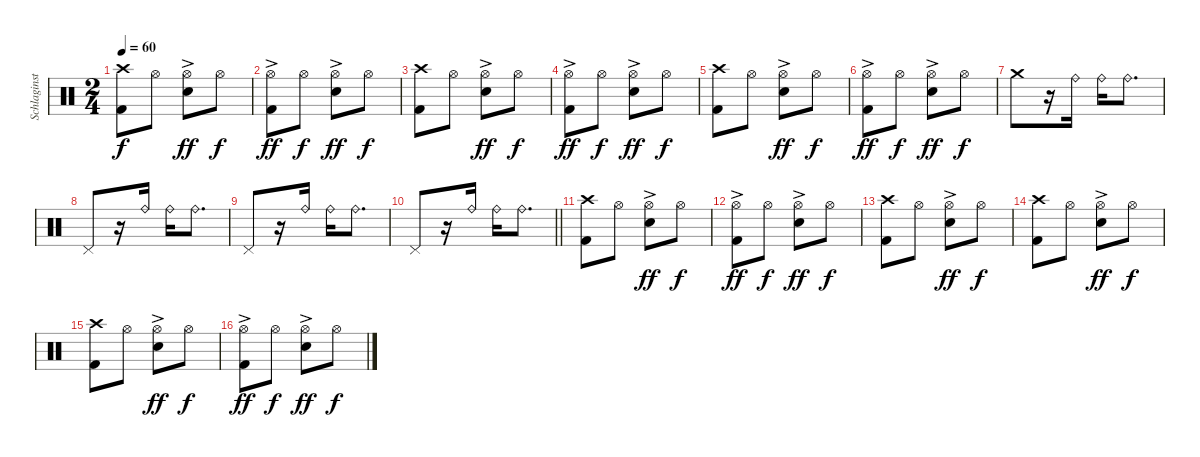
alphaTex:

\track ("Schlaginstrumente - Auswahl" "Schlaginst") {instrument percussion}
\staff {score}
\articulation defaults
\ts (2 4)
\tempo 60
\clef neutral
\ks c
("Crash high (hit)" "Kick (hit) 2").8{dy f} "Hi-Hat (open)".8 ("Hi-Hat (open)"{ac} "Snare (hit) 2").8{dy ff} "Hi-Hat (open)".8{dy f} |
("Hi-Hat (open)"{ac} "Kick (hit) 2").8{dy ff} "Hi-Hat (open)".8{dy f} ("Hi-Hat (open)"{ac} "Snare (hit) 2").8{dy ff} "Hi-Hat (open)".8{dy f} |
("Crash high (hit)" "Kick (hit) 2").8 "Hi-Hat (open)".8 ("Hi-Hat (open)"{ac} "Snare (hit) 2").8{dy ff} "Hi-Hat (open)".8{dy f} |
("Hi-Hat (open)"{ac} "Kick (hit) 2").8{dy ff} "Hi-Hat (open)".8{dy f} ("Hi-Hat (open)"{ac} "Snare (hit) 2").8{dy ff} "Hi-Hat (open)".8{dy f} |
("Crash high (hit)" "Kick (hit) 2").8 "Hi-Hat (open)".8 ("Hi-Hat (open)"{ac} "Snare (hit) 2").8{dy ff} "Hi-Hat (open)".8{dy f} |
("Hi-Hat (open)"{ac} "Kick (hit) 2").8{dy ff} "Hi-Hat (open)".8{dy f} ("Hi-Hat (open)"{ac} "Snare (hit) 2").8{dy ff} "Hi-Hat (open)".8{dy f} |
"Crash medium (hit)".8 r.16 "Ride (bell)".16 "Ride (bell)".16 "Ride (bell)".8{d} |
"Pedal Hi-Hat (hit)".8 r.16 "Ride (bell)".16 "Ride (bell)".16 "Ride (bell)".8{d} |
"Pedal Hi-Hat (hit)".8 r.16 "Ride (bell)".16 "Ride (bell)".16 "Ride (bell)".8{d} |
\barLineRight lightlight "Pedal Hi-Hat (hit)".8
r.16 "Ride (bell)".16 "Ride (bell)".16 "Ride (bell)".8{d} |
("Crash high (hit)" "Kick (hit) 2").8 "Hi-Hat (open)".8 ("Hi-Hat (open)"{ac} "Snare (hit) 2").8{dy ff} "Hi-Hat (open)".8{dy f} |
("Hi-Hat (open)"{ac} "Kick (hit) 2").8{dy ff} "Hi-Hat (open)".8{dy f} ("Hi-Hat (open)"{ac} "Snare (hit) 2").8{dy ff} "Hi-Hat (open)".8{dy f} |
("Crash high (hit)" "Kick (hit) 2").8 "Hi-Hat (open)".8 ("Hi-Hat (open)"{ac} "Snare (hit) 2").8{dy ff} "Hi-Hat (open)".8{dy f} |
("Crash high (hit)" "Kick (hit) 2").8 "Hi-Hat (open)".8 ("Hi-Hat (open)"{ac} "Snare (hit) 2").8{dy ff} "Hi-Hat (open)".8{dy f} |
("Crash high (hit)" "Kick (hit) 2").8 "Hi-Hat (open)".8 ("Hi-Hat (open)"{ac} "Snare (hit) 2").8{dy ff} "Hi-Hat (open)".8{dy f} |
("Hi-Hat (open)"{ac} "Kick (hit) 2").8{dy ff} "Hi-Hat (open)".8{dy f} ("Hi-Hat (open)"{ac} "Snare (hit) 2").8{dy ff} "Hi-Hat (open)".8{dy f}
